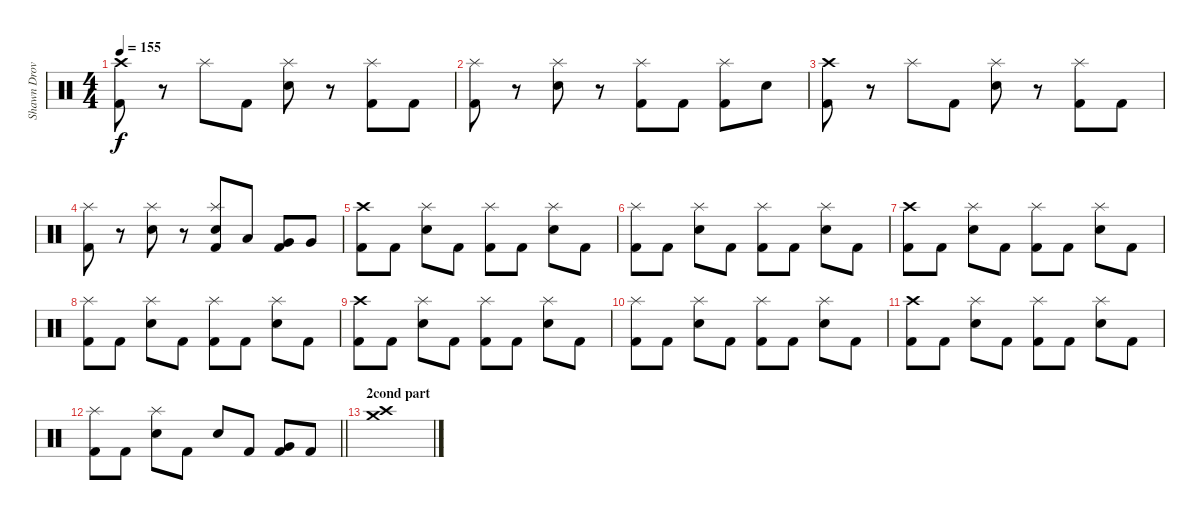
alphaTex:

\track ("Shawn Drover" "Shawn Drov") {instrument percussion}
\staff {score}
\articulation defaults
\ts (4 4)
\tempo 155
\clef neutral
\ks c
("Crash high (hit)" "Kick (hit) 2").8{dy f} r.8 "Splash (hit)".8 "Kick (hit) 2".8 ("Splash (hit)" "Snare (hit) 2").8 r.8 ("Splash (hit)" "Kick (hit) 2").8 "Kick (hit) 2".8 |
("Splash (hit)" "Kick (hit) 2").8 r.8 ("Splash (hit)" "Snare (hit) 2").8 r.8 ("Splash (hit)" "Kick (hit) 2").8 "Kick (hit) 2".8 ("Splash (hit)" "Kick (hit) 2").8 "Snare (hit) 2".8 |
("Crash high (hit)" "Kick (hit) 2").8 r.8 "Splash (hit)".8 "Kick (hit) 2".8 ("Splash (hit)" "Snare (hit) 2").8 r.8 ("Splash (hit)" "Kick (hit) 2").8 "Kick (hit) 2".8 |
("Splash (hit)" "Kick (hit) 2").8 r.8 ("Splash (hit)" "Snare (hit) 2").8 r.8 ("Splash (hit)" "Snare (hit) 2" "Kick (hit) 2").8 "Low Tom (hit)".8 ("Very Low Tom (hit)" "Kick (hit) 2").8 "Very Low Tom (hit)".8 |
("Crash high (hit)" "Kick (hit) 2").8 "Kick (hit) 2".8 ("Splash (hit)" "Snare (hit) 2").8 "Kick (hit) 2".8 ("Splash (hit)" "Kick (hit) 2").8 "Kick (hit) 2".8 ("Splash (hit)" "Snare (hit) 2").8 "Kick (hit) 2".8 |
("Splash (hit)" "Kick (hit) 2").8 "Kick (hit) 2".8 ("Splash (hit)" "Snare (hit) 2").8 "Kick (hit) 2".8 ("Splash (hit)" "Kick (hit) 2").8 "Kick (hit) 2".8 ("Splash (hit)" "Snare (hit) 2").8 "Kick (hit) 2".8 |
("Crash high (hit)" "Kick (hit) 2").8 "Kick (hit) 2".8 ("Splash (hit)" "Snare (hit) 2").8 "Kick (hit) 2".8 ("Splash (hit)" "Kick (hit) 2").8 "Kick (hit) 2".8 ("Splash (hit)" "Snare (hit) 2").8 "Kick (hit) 2".8 |
("Splash (hit)" "Kick (hit) 2").8 "Kick (hit) 2".8 ("Splash (hit)" "Snare (hit) 2").8 "Kick (hit) 2".8 ("Splash (hit)" "Kick (hit) 2").8 "Kick (hit) 2".8 ("Splash (hit)" "Snare (hit) 2").8 "Kick (hit) 2".8 |
("Crash high (hit)" "Kick (hit) 2").8 "Kick (hit) 2".8 ("Splash (hit)" "Snare (hit) 2").8 "Kick (hit) 2".8 ("Splash (hit)" "Kick (hit) 2").8 "Kick (hit) 2".8 ("Splash (hit)" "Snare (hit) 2").8 "Kick (hit) 2".8 |
("Splash (hit)" "Kick (hit) 2").8 "Kick (hit) 2".8 ("Splash (hit)" "Snare (hit) 2").8 "Kick (hit) 2".8 ("Splash (hit)" "Kick (hit) 2").8 "Kick (hit) 2".8 ("Splash (hit)" "Snare (hit) 2").8 "Kick (hit) 2".8 |
("Crash high (hit)" "Kick (hit) 2").8 "Kick (hit) 2".8 ("Splash (hit)" "Snare (hit) 2").8 "Kick (hit) 2".8 ("Splash (hit)" "Kick (hit) 2").8 "Kick (hit) 2".8 ("Splash (hit)" "Snare (hit) 2").8 "Kick (hit) 2".8 |
\barLineRight lightlight
("Splash (hit)" "Kick (hit) 2").8 "Kick (hit) 2".8 ("Splash (hit)" "Snare (hit) 2").8 "Kick (hit) 2".8 "Snare (hit) 2".8 "Kick (hit) 2".8 ("Very Low Tom (hit)" "Kick (hit) 2").8 "Kick (hit) 2".8 |
\section ("" "2cond part")
("Crash high (hit)" "Crash medium (hit)").1
